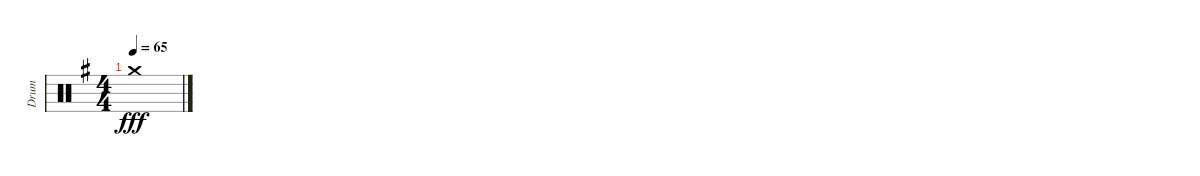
\track ("Drum" "Drum") {instrument percussion}
\staff {score}
\articulation defaults
\ts (4 4)
\tempo 65
\clef neutral
\ks eminor "Crash medium (hit)".1{dy fff}
